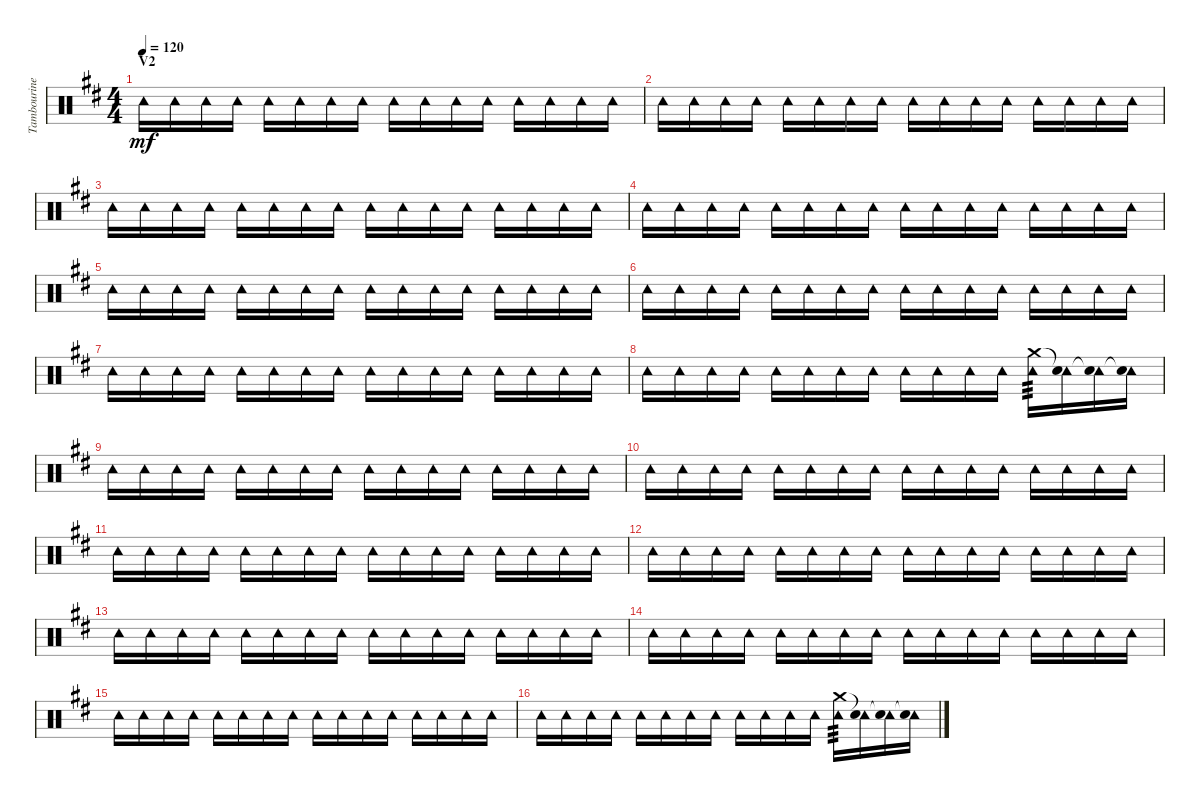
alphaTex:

\track ("Tambourine" "Tambourine") {instrument percussion}
\staff {score}
\articulation defaults
\ts (4 4)
\section ("" "V2")
\tempo 120
\clef neutral
\ks d "Tambourine (hit)".16{dy mf} "Tambourine (hit)".16 "Tambourine (hit)".16 "Tambourine (hit)".16 "Tambourine (hit)".16 "Tambourine (hit)".16 "Tambourine (hit)".16 "Tambourine (hit)".16 "Tambourine (hit)".16 "Tambourine (hit)".16 "Tambourine (hit)".16 "Tambourine (hit)".16 "Tambourine (hit)".16 "Tambourine (hit)".16 "Tambourine (hit)".16 "Tambourine (hit)".16
|
"Tambourine (hit)".16 "Tambourine (hit)".16 "Tambourine (hit)".16 "Tambourine (hit)".16 "Tambourine (hit)".16 "Tambourine (hit)".16 "Tambourine (hit)".16 "Tambourine (hit)".16 "Tambourine (hit)".16 "Tambourine (hit)".16 "Tambourine (hit)".16 "Tambourine (hit)".16 "Tambourine (hit)".16 "Tambourine (hit)".16 "Tambourine (hit)".16 "Tambourine (hit)".16 |
"Tambourine (hit)".16 "Tambourine (hit)".16 "Tambourine (hit)".16 "Tambourine (hit)".16 "Tambourine (hit)".16 "Tambourine (hit)".16 "Tambourine (hit)".16 "Tambourine (hit)".16 "Tambourine (hit)".16 "Tambourine (hit)".16 "Tambourine (hit)".16 "Tambourine (hit)".16 "Tambourine (hit)".16 "Tambourine (hit)".16 "Tambourine (hit)".16 "Tambourine (hit)".16 |
"Tambourine (hit)".16 "Tambourine (hit)".16 "Tambourine (hit)".16 "Tambourine (hit)".16 "Tambourine (hit)".16 "Tambourine (hit)".16 "Tambourine (hit)".16 "Tambourine (hit)".16 "Tambourine (hit)".16 "Tambourine (hit)".16 "Tambourine (hit)".16 "Tambourine (hit)".16 "Tambourine (hit)".16 "Tambourine (hit)".16 "Tambourine (hit)".16 "Tambourine (hit)".16 |
"Tambourine (hit)".16 "Tambourine (hit)".16 "Tambourine (hit)".16 "Tambourine (hit)".16 "Tambourine (hit)".16 "Tambourine (hit)".16 "Tambourine (hit)".16 "Tambourine (hit)".16 "Tambourine (hit)".16 "Tambourine (hit)".16 "Tambourine (hit)".16 "Tambourine (hit)".16 "Tambourine (hit)".16 "Tambourine (hit)".16 "Tambourine (hit)".16 "Tambourine (hit)".16 |
"Tambourine (hit)".16 "Tambourine (hit)".16 "Tambourine (hit)".16 "Tambourine (hit)".16 "Tambourine (hit)".16 "Tambourine (hit)".16 "Tambourine (hit)".16 "Tambourine (hit)".16 "Tambourine (hit)".16 "Tambourine (hit)".16 "Tambourine (hit)".16 "Tambourine (hit)".16 "Tambourine (hit)".16 "Tambourine (hit)".16 "Tambourine (hit)".16 "Tambourine (hit)".16 |
"Tambourine (hit)".16 "Tambourine (hit)".16 "Tambourine (hit)".16 "Tambourine (hit)".16 "Tambourine (hit)".16 "Tambourine (hit)".16 "Tambourine (hit)".16 "Tambourine (hit)".16 "Tambourine (hit)".16 "Tambourine (hit)".16 "Tambourine (hit)".16 "Tambourine (hit)".16 "Tambourine (hit)".16 "Tambourine (hit)".16 "Tambourine (hit)".16 "Tambourine (hit)".16 |
"Tambourine (hit)".16 "Tambourine (hit)".16 "Tambourine (hit)".16 "Tambourine (hit)".16 "Tambourine (hit)".16 "Tambourine (hit)".16 "Tambourine (hit)".16 "Tambourine (hit)".16 "Tambourine (hit)".16 "Tambourine (hit)".16 "Tambourine (hit)".16 "Tambourine (hit)".16 ("Tambourine (hit)" "Crash medium (hit)").16{tp 3} ("Tambourine (hit)" "Snare (hit)"{t}).16 ("Tambourine (hit)" "Snare (hit)"{t}).16 ("Tambourine (hit)" "Snare (hit)"{t}).16 |
"Tambourine (hit)".16 "Tambourine (hit)".16 "Tambourine (hit)".16 "Tambourine (hit)".16 "Tambourine (hit)".16 "Tambourine (hit)".16 "Tambourine (hit)".16 "Tambourine (hit)".16 "Tambourine (hit)".16 "Tambourine (hit)".16 "Tambourine (hit)".16 "Tambourine (hit)".16 "Tambourine (hit)".16 "Tambourine (hit)".16 "Tambourine (hit)".16 "Tambourine (hit)".16 |
"Tambourine (hit)".16 "Tambourine (hit)".16 "Tambourine (hit)".16 "Tambourine (hit)".16 "Tambourine (hit)".16 "Tambourine (hit)".16 "Tambourine (hit)".16 "Tambourine (hit)".16 "Tambourine (hit)".16 "Tambourine (hit)".16 "Tambourine (hit)".16 "Tambourine (hit)".16 "Tambourine (hit)".16 "Tambourine (hit)".16 "Tambourine (hit)".16 "Tambourine (hit)".16 |
"Tambourine (hit)".16 "Tambourine (hit)".16 "Tambourine (hit)".16 "Tambourine (hit)".16 "Tambourine (hit)".16 "Tambourine (hit)".16 "Tambourine (hit)".16 "Tambourine (hit)".16 "Tambourine (hit)".16 "Tambourine (hit)".16 "Tambourine (hit)".16 "Tambourine (hit)".16 "Tambourine (hit)".16 "Tambourine (hit)".16 "Tambourine (hit)".16 "Tambourine (hit)".16 |
"Tambourine (hit)".16 "Tambourine (hit)".16 "Tambourine (hit)".16 "Tambourine (hit)".16 "Tambourine (hit)".16 "Tambourine (hit)".16 "Tambourine (hit)".16 "Tambourine (hit)".16 "Tambourine (hit)".16 "Tambourine (hit)".16 "Tambourine (hit)".16 "Tambourine (hit)".16 "Tambourine (hit)".16 "Tambourine (hit)".16 "Tambourine (hit)".16 "Tambourine (hit)".16 |
"Tambourine (hit)".16 "Tambourine (hit)".16 "Tambourine (hit)".16 "Tambourine (hit)".16 "Tambourine (hit)".16 "Tambourine (hit)".16 "Tambourine (hit)".16 "Tambourine (hit)".16 "Tambourine (hit)".16 "Tambourine (hit)".16 "Tambourine (hit)".16 "Tambourine (hit)".16 "Tambourine (hit)".16 "Tambourine (hit)".16 "Tambourine (hit)".16 "Tambourine (hit)".16 |
"Tambourine (hit)".16 "Tambourine (hit)".16 "Tambourine (hit)".16 "Tambourine (hit)".16 "Tambourine (hit)".16 "Tambourine (hit)".16 "Tambourine (hit)".16 "Tambourine (hit)".16 "Tambourine (hit)".16 "Tambourine (hit)".16 "Tambourine (hit)".16 "Tambourine (hit)".16 "Tambourine (hit)".16 "Tambourine (hit)".16 "Tambourine (hit)".16 "Tambourine (hit)".16 |
"Tambourine (hit)".16 "Tambourine (hit)".16 "Tambourine (hit)".16 "Tambourine (hit)".16 "Tambourine (hit)".16 "Tambourine (hit)".16 "Tambourine (hit)".16 "Tambourine (hit)".16 "Tambourine (hit)".16 "Tambourine (hit)".16 "Tambourine (hit)".16 "Tambourine (hit)".16 "Tambourine (hit)".16 "Tambourine (hit)".16 "Tambourine (hit)".16 "Tambourine (hit)".16 |
"Tambourine (hit)".16 "Tambourine (hit)".16 "Tambourine (hit)".16 "Tambourine (hit)".16 "Tambourine (hit)".16 "Tambourine (hit)".16 "Tambourine (hit)".16 "Tambourine (hit)".16 "Tambourine (hit)".16 "Tambourine (hit)".16 "Tambourine (hit)".16 "Tambourine (hit)".16 ("Tambourine (hit)" "Crash medium (hit)").16{tp 3} ("Tambourine (hit)" "Snare (hit)"{t}).16 ("Tambourine (hit)" "Snare (hit)"{t}).16 ("Tambourine (hit)" "Snare (hit)"{t}).16
